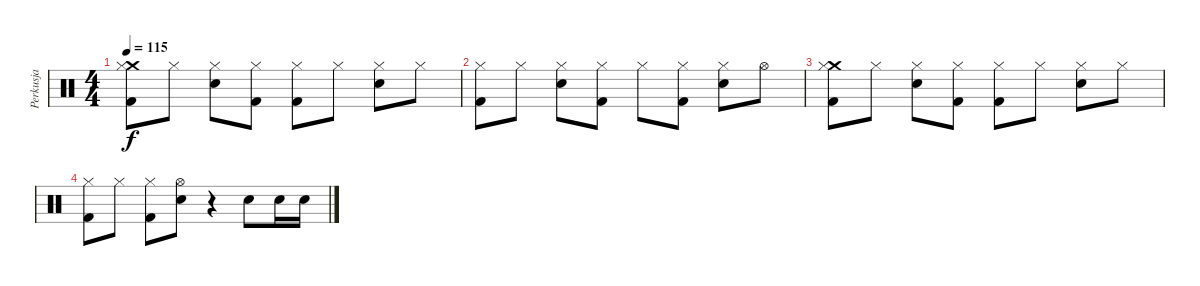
\track ("Perkusja" "Perkusja") {instrument percussion}
\staff {score}
\articulation defaults
\ts (4 4)
\tempo 115
\clef neutral
\ks c
("Crash medium (hit)" "Hi-Hat (closed)" "Kick (hit) 2").8{dy f} "Hi-Hat (closed)".8 ("Hi-Hat (closed)" "Electric Snare (hit)").8 ("Hi-Hat (closed)" "Kick (hit) 2").8 ("Hi-Hat (closed)" "Kick (hit) 2").8 "Hi-Hat (closed)".8 ("Hi-Hat (closed)" "Electric Snare (hit)").8 "Hi-Hat (closed)".8 |
("Hi-Hat (closed)" "Kick (hit) 2").8 "Hi-Hat (closed)".8 ("Hi-Hat (closed)" "Electric Snare (hit)").8 ("Hi-Hat (closed)" "Kick (hit) 2").8 "Hi-Hat (closed)".8 ("Hi-Hat (closed)" "Kick (hit) 2").8 ("Hi-Hat (closed)" "Electric Snare (hit)").8 "Hi-Hat (open)".8 |
("Crash medium (hit)" "Hi-Hat (closed)" "Kick (hit) 2").8 "Hi-Hat (closed)".8 ("Hi-Hat (closed)" "Electric Snare (hit)").8 ("Hi-Hat (closed)" "Kick (hit) 2").8 ("Hi-Hat (closed)" "Kick (hit) 2").8 "Hi-Hat (closed)".8 ("Hi-Hat (closed)" "Electric Snare (hit)").8 "Hi-Hat (closed)".8 |
("Hi-Hat (closed)" "Kick (hit) 2").8 "Hi-Hat (closed)".8 ("Hi-Hat (closed)" "Kick (hit) 2").8 ("Hi-Hat (open)" "Electric Snare (hit)").8 r.4 "Electric Snare (hit)".8 "Electric Snare (hit)".16 "Electric Snare (hit)".16
